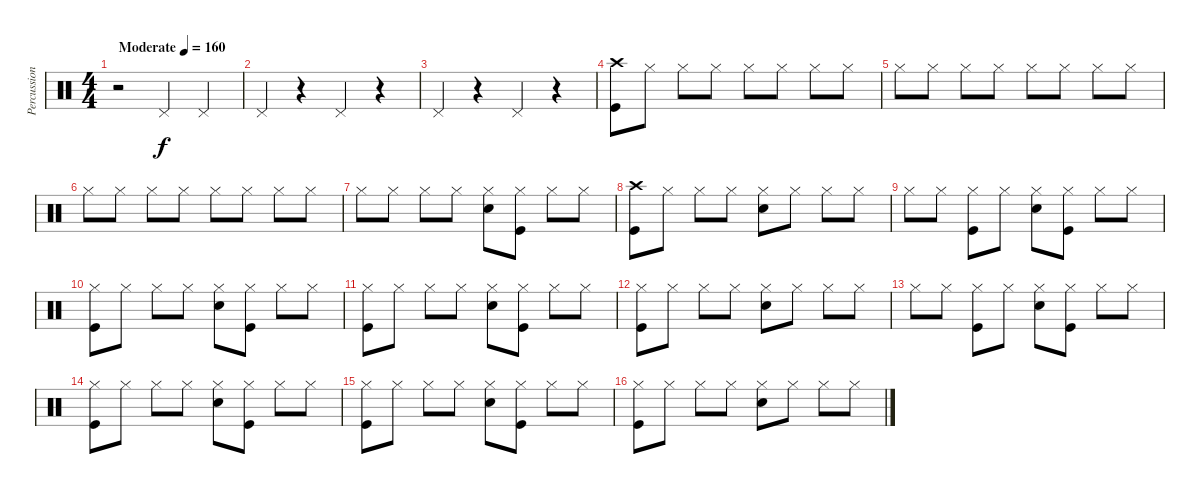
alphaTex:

\track ("Percussion" "Percussion") {instrument percussion}
\staff {score}
\articulation defaults
\ts (4 4)
\tempo (160 "Moderate")
\clef neutral
\ks c
r.2{dy f} "Pedal Hi-Hat (hit)".4 "Pedal Hi-Hat (hit)".4 |
"Pedal Hi-Hat (hit)".4 r.4 "Pedal Hi-Hat (hit)".4 r.4 |
"Pedal Hi-Hat (hit)".4 r.4 "Pedal Hi-Hat (hit)".4 r.4 |
("Crash high (hit)" "Kick (hit)").8 "Hi-Hat (closed)".8 "Hi-Hat (closed)".8 "Hi-Hat (closed)".8 "Hi-Hat (closed)".8 "Hi-Hat (closed)".8 "Hi-Hat (closed)".8 "Hi-Hat (closed)".8 |
"Hi-Hat (closed)".8 "Hi-Hat (closed)".8 "Hi-Hat (closed)".8 "Hi-Hat (closed)".8 "Hi-Hat (closed)".8 "Hi-Hat (closed)".8 "Hi-Hat (closed)".8 "Hi-Hat (closed)".8 |
"Hi-Hat (closed)".8 "Hi-Hat (closed)".8 "Hi-Hat (closed)".8 "Hi-Hat (closed)".8 "Hi-Hat (closed)".8 "Hi-Hat (closed)".8 "Hi-Hat (closed)".8 "Hi-Hat (closed)".8 |
"Hi-Hat (closed)".8 "Hi-Hat (closed)".8 "Hi-Hat (closed)".8 "Hi-Hat (closed)".8 ("Hi-Hat (closed)" "Snare (hit) 2").8 ("Hi-Hat (closed)" "Kick (hit)").8 "Hi-Hat (closed)".8 "Hi-Hat (closed)".8 |
("Crash high (hit)" "Kick (hit)").8 "Hi-Hat (closed)".8 "Hi-Hat (closed)".8 "Hi-Hat (closed)".8 ("Hi-Hat (closed)" "Snare (hit) 2").8 "Hi-Hat (closed)".8 "Hi-Hat (closed)".8 "Hi-Hat (closed)".8 |
"Hi-Hat (closed)".8 "Hi-Hat (closed)".8 ("Hi-Hat (closed)" "Kick (hit)").8 "Hi-Hat (closed)".8 ("Hi-Hat (closed)" "Snare (hit) 2").8 ("Hi-Hat (closed)" "Kick (hit)").8 "Hi-Hat (closed)".8 "Hi-Hat (closed)".8 |
("Hi-Hat (closed)" "Kick (hit)").8 "Hi-Hat (closed)".8 "Hi-Hat (closed)".8 "Hi-Hat (closed)".8 ("Hi-Hat (closed)" "Snare (hit) 2").8 ("Hi-Hat (closed)" "Kick (hit)").8 "Hi-Hat (closed)".8 "Hi-Hat (closed)".8 |
("Hi-Hat (closed)" "Kick (hit)").8 "Hi-Hat (closed)".8 "Hi-Hat (closed)".8 "Hi-Hat (closed)".8 ("Hi-Hat (closed)" "Snare (hit) 2").8 ("Hi-Hat (closed)" "Kick (hit)").8 "Hi-Hat (closed)".8 "Hi-Hat (closed)".8 |
("Hi-Hat (closed)" "Kick (hit)").8 "Hi-Hat (closed)".8 "Hi-Hat (closed)".8 "Hi-Hat (closed)".8 ("Hi-Hat (closed)" "Snare (hit) 2").8 "Hi-Hat (closed)".8 "Hi-Hat (closed)".8 "Hi-Hat (closed)".8 |
"Hi-Hat (closed)".8 "Hi-Hat (closed)".8 ("Hi-Hat (closed)" "Kick (hit)").8 "Hi-Hat (closed)".8 ("Hi-Hat (closed)" "Snare (hit) 2").8 ("Hi-Hat (closed)" "Kick (hit)").8 "Hi-Hat (closed)".8 "Hi-Hat (closed)".8 |
("Hi-Hat (closed)" "Kick (hit)").8 "Hi-Hat (closed)".8 "Hi-Hat (closed)".8 "Hi-Hat (closed)".8 ("Hi-Hat (closed)" "Snare (hit) 2").8 ("Hi-Hat (closed)" "Kick (hit)").8 "Hi-Hat (closed)".8 "Hi-Hat (closed)".8 |
("Hi-Hat (closed)" "Kick (hit)").8 "Hi-Hat (closed)".8 "Hi-Hat (closed)".8 "Hi-Hat (closed)".8 ("Hi-Hat (closed)" "Snare (hit) 2").8 ("Hi-Hat (closed)" "Kick (hit)").8 "Hi-Hat (closed)".8 "Hi-Hat (closed)".8 |
("Hi-Hat (closed)" "Kick (hit)").8 "Hi-Hat (closed)".8 "Hi-Hat (closed)".8 "Hi-Hat (closed)".8 ("Hi-Hat (closed)" "Snare (hit) 2").8 "Hi-Hat (closed)".8 "Hi-Hat (closed)".8 "Hi-Hat (closed)".8
